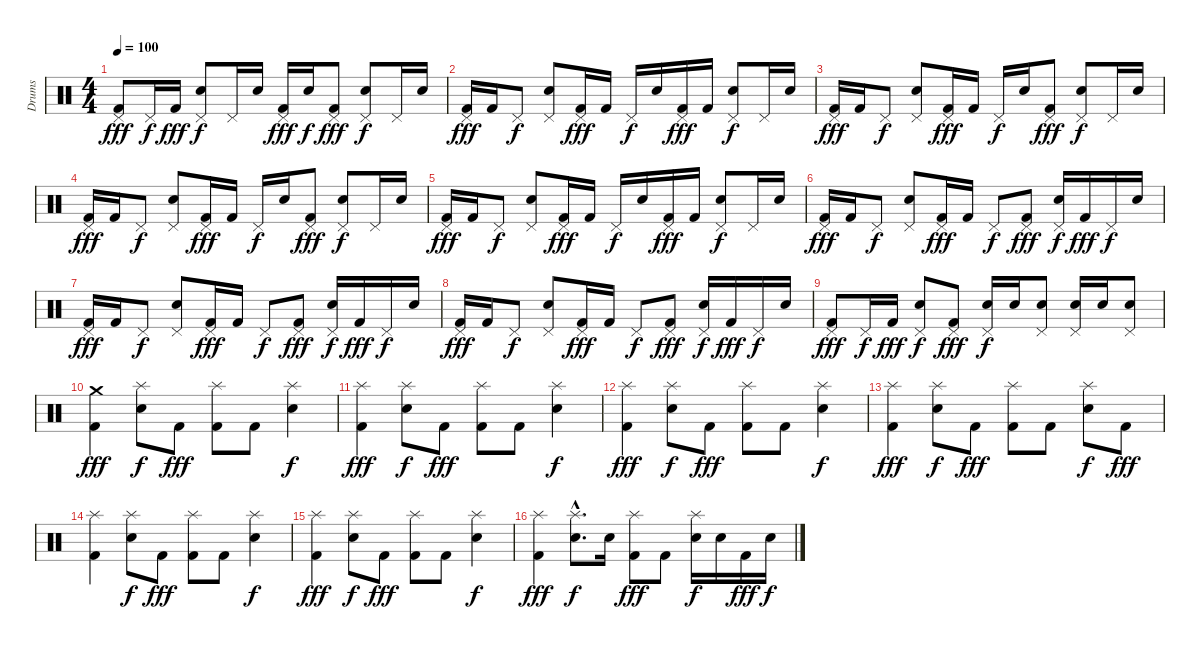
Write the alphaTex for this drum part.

\track ("Drums" "Drums") {instrument percussion}
\staff {score}
\articulation defaults
\ts (4 4)
\tempo 100
\clef neutral
\ks c
("Pedal Hi-Hat (hit)" "Kick (hit) 2").8{dy fff} "Pedal Hi-Hat (hit)".16{dy f} "Kick (hit) 2".16{dy fff} ("Pedal Hi-Hat (hit)" "Electric Snare (hit)").8{dy f} "Pedal Hi-Hat (hit)".16 "Electric Snare (hit)".16 ("Pedal Hi-Hat (hit)" "Kick (hit) 2").16{dy fff} "Electric Snare (hit)".16{dy f} ("Pedal Hi-Hat (hit)" "Kick (hit) 2").8{dy fff} ("Pedal Hi-Hat (hit)" "Electric Snare (hit)").8{dy f} "Pedal Hi-Hat (hit)".16 "Electric Snare (hit)".16 |
("Pedal Hi-Hat (hit)" "Kick (hit) 2").16{dy fff} "Kick (hit) 2".16 "Pedal Hi-Hat (hit)".8{dy f} ("Pedal Hi-Hat (hit)" "Electric Snare (hit)").8 ("Pedal Hi-Hat (hit)" "Kick (hit) 2").16{dy fff} "Kick (hit) 2".16 "Pedal Hi-Hat (hit)".16{dy f} "Electric Snare (hit)".16 ("Pedal Hi-Hat (hit)" "Kick (hit) 2").16{dy fff} "Kick (hit) 2".16 ("Pedal Hi-Hat (hit)" "Electric Snare (hit)").8{dy f} "Pedal Hi-Hat (hit)".16 "Electric Snare (hit)".16 |
("Pedal Hi-Hat (hit)" "Kick (hit) 2").16{dy fff} "Kick (hit) 2".16 "Pedal Hi-Hat (hit)".8{dy f} ("Pedal Hi-Hat (hit)" "Electric Snare (hit)").8 ("Pedal Hi-Hat (hit)" "Kick (hit) 2").16{dy fff} "Kick (hit) 2".16 "Pedal Hi-Hat (hit)".16{dy f} "Electric Snare (hit)".16 ("Pedal Hi-Hat (hit)" "Kick (hit) 2").8{dy fff} ("Pedal Hi-Hat (hit)" "Electric Snare (hit)").8{dy f} "Pedal Hi-Hat (hit)".16 "Electric Snare (hit)".16 |
("Pedal Hi-Hat (hit)" "Kick (hit) 2").16{dy fff} "Kick (hit) 2".16 "Pedal Hi-Hat (hit)".8{dy f} ("Pedal Hi-Hat (hit)" "Electric Snare (hit)").8 ("Pedal Hi-Hat (hit)" "Kick (hit) 2").16{dy fff} "Kick (hit) 2".16 "Pedal Hi-Hat (hit)".16{dy f} "Electric Snare (hit)".16 ("Pedal Hi-Hat (hit)" "Kick (hit) 2").8{dy fff} ("Pedal Hi-Hat (hit)" "Electric Snare (hit)").8{dy f} "Pedal Hi-Hat (hit)".16 "Electric Snare (hit)".16 |
("Pedal Hi-Hat (hit)" "Kick (hit) 2").16{dy fff} "Kick (hit) 2".16 "Pedal Hi-Hat (hit)".8{dy f} ("Pedal Hi-Hat (hit)" "Electric Snare (hit)").8 ("Pedal Hi-Hat (hit)" "Kick (hit) 2").16{dy fff} "Kick (hit) 2".16 "Pedal Hi-Hat (hit)".16{dy f} "Electric Snare (hit)".16 ("Pedal Hi-Hat (hit)" "Kick (hit) 2").16{dy fff} "Kick (hit) 2".16 ("Pedal Hi-Hat (hit)" "Electric Snare (hit)").8{dy f} "Pedal Hi-Hat (hit)".16 "Electric Snare (hit)".16 |
("Pedal Hi-Hat (hit)" "Kick (hit) 2").16{dy fff} "Kick (hit) 2".16 "Pedal Hi-Hat (hit)".8{dy f} ("Pedal Hi-Hat (hit)" "Electric Snare (hit)").8 ("Pedal Hi-Hat (hit)" "Kick (hit) 2").16{dy fff} "Kick (hit) 2".16 "Pedal Hi-Hat (hit)".8{dy f} ("Pedal Hi-Hat (hit)" "Kick (hit) 2").8{dy fff} ("Pedal Hi-Hat (hit)" "Electric Snare (hit)").16{dy f} "Kick (hit) 2".16{dy fff} "Pedal Hi-Hat (hit)".16{dy f} "Electric Snare (hit)".16 |
("Pedal Hi-Hat (hit)" "Kick (hit) 2").16{dy fff} "Kick (hit) 2".16 "Pedal Hi-Hat (hit)".8{dy f} ("Pedal Hi-Hat (hit)" "Electric Snare (hit)").8 ("Pedal Hi-Hat (hit)" "Kick (hit) 2").16{dy fff} "Kick (hit) 2".16 "Pedal Hi-Hat (hit)".8{dy f} ("Pedal Hi-Hat (hit)" "Kick (hit) 2").8{dy fff} ("Pedal Hi-Hat (hit)" "Electric Snare (hit)").16{dy f} "Kick (hit) 2".16{dy fff} "Pedal Hi-Hat (hit)".16{dy f} "Electric Snare (hit)".16 |
("Pedal Hi-Hat (hit)" "Kick (hit) 2").16{dy fff} "Kick (hit) 2".16 "Pedal Hi-Hat (hit)".8{dy f} ("Pedal Hi-Hat (hit)" "Electric Snare (hit)").8 ("Pedal Hi-Hat (hit)" "Kick (hit) 2").16{dy fff} "Kick (hit) 2".16 "Pedal Hi-Hat (hit)".8{dy f} ("Pedal Hi-Hat (hit)" "Kick (hit) 2").8{dy fff} ("Pedal Hi-Hat (hit)" "Electric Snare (hit)").16{dy f} "Kick (hit) 2".16{dy fff} "Pedal Hi-Hat (hit)".16{dy f} "Electric Snare (hit)".16 |
("Pedal Hi-Hat (hit)" "Kick (hit) 2").8{dy fff} "Pedal Hi-Hat (hit)".16{dy f} "Kick (hit) 2".16{dy fff} ("Pedal Hi-Hat (hit)" "Electric Snare (hit)").8{dy f} ("Pedal Hi-Hat (hit)" "Kick (hit) 2").8{dy fff} ("Pedal Hi-Hat (hit)" "Electric Snare (hit)").16{dy f} "Electric Snare (hit)".16 ("Pedal Hi-Hat (hit)" "Electric Snare (hit)").8 ("Pedal Hi-Hat (hit)" "Electric Snare (hit)").16 "Electric Snare (hit)".16 ("Pedal Hi-Hat (hit)" "Electric Snare (hit)").8 |
("Crash medium (hit)" "Kick (hit) 2").4{dy fff} ("Splash (hit)" "Electric Snare (hit)").8{dy f} "Kick (hit) 2".8{dy fff} ("Splash (hit)" "Kick (hit) 2").8 "Kick (hit) 2".8 ("Splash (hit)" "Electric Snare (hit)").4{dy f} |
("Splash (hit)" "Kick (hit) 2").4{dy fff} ("Splash (hit)" "Electric Snare (hit)").8{dy f} "Kick (hit) 2".8{dy fff} ("Splash (hit)" "Kick (hit) 2").8 "Kick (hit) 2".8 ("Splash (hit)" "Electric Snare (hit)").4{dy f} |
("Splash (hit)" "Kick (hit) 2").4{dy fff} ("Splash (hit)" "Electric Snare (hit)").8{dy f} "Kick (hit) 2".8{dy fff} ("Splash (hit)" "Kick (hit) 2").8 "Kick (hit) 2".8 ("Splash (hit)" "Electric Snare (hit)").4{dy f} |
("Splash (hit)" "Kick (hit) 2").4{dy fff} ("Splash (hit)" "Electric Snare (hit)").8{dy f} "Kick (hit) 2".8{dy fff} ("Splash (hit)" "Kick (hit) 2").8 "Kick (hit) 2".8 ("Splash (hit)" "Electric Snare (hit)").8{dy f} "Kick (hit) 2".8{dy fff} |
("Splash (hit)" "Kick (hit) 2").4 ("Splash (hit)" "Electric Snare (hit)").8{dy f} "Kick (hit) 2".8{dy fff} ("Splash (hit)" "Kick (hit) 2").8 "Kick (hit) 2".8 ("Splash (hit)" "Electric Snare (hit)").4{dy f} |
("Splash (hit)" "Kick (hit) 2").4{dy fff} ("Splash (hit)" "Electric Snare (hit)").8{dy f} "Kick (hit) 2".8{dy fff} ("Splash (hit)" "Kick (hit) 2").8 "Kick (hit) 2".8 ("Splash (hit)" "Electric Snare (hit)").4{dy f} |
("Splash (hit)" "Kick (hit) 2").4{dy fff} ("Splash (hit)"{hac} "Electric Snare (hit)"{hac}).8{d dy f} "Electric Snare (hit)".16 ("Splash (hit)" "Kick (hit) 2").8{dy fff} "Kick (hit) 2".8 ("Splash (hit)" "Electric Snare (hit)").16{dy f} "Electric Snare (hit)".16 "Kick (hit) 2".16{dy fff} "Electric Snare (hit)".16{dy f}
